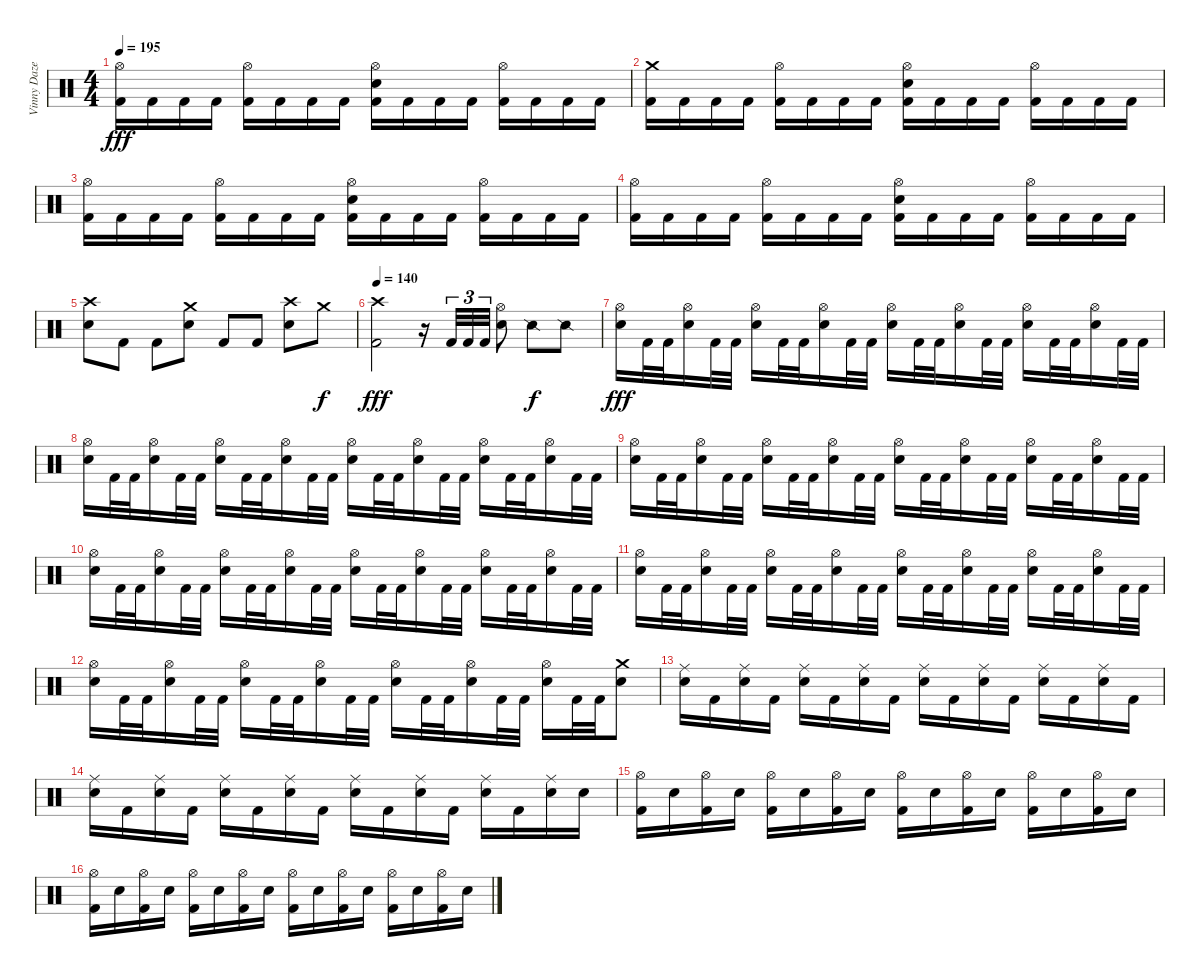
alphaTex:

\track ("Vinny Daze (R.I.P.)" "Vinny Daze") {instrument percussion}
\staff {score}
\articulation defaults
\ts (4 4)
\tempo 195
\clef neutral
\ks c
("Hi-Hat (open)" "Kick (hit) 2").16{dy fff} "Kick (hit) 2".16 "Kick (hit) 2".16 "Kick (hit) 2".16 ("Hi-Hat (open)" "Kick (hit) 2").16 "Kick (hit) 2".16 "Kick (hit) 2".16 "Kick (hit) 2".16 ("Hi-Hat (open)" "Electric Snare (hit)" "Kick (hit) 2").16 "Kick (hit) 2".16 "Kick (hit) 2".16 "Kick (hit) 2".16 ("Hi-Hat (open)" "Kick (hit) 2").16 "Kick (hit) 2".16 "Kick (hit) 2".16 "Kick (hit) 2".16 |
("Crash medium (hit)" "Kick (hit) 2").16 "Kick (hit) 2".16 "Kick (hit) 2".16 "Kick (hit) 2".16 ("Hi-Hat (open)" "Kick (hit) 2").16 "Kick (hit) 2".16 "Kick (hit) 2".16 "Kick (hit) 2".16 ("Hi-Hat (open)" "Electric Snare (hit)" "Kick (hit) 2").16 "Kick (hit) 2".16 "Kick (hit) 2".16 "Kick (hit) 2".16 ("Hi-Hat (open)" "Kick (hit) 2").16 "Kick (hit) 2".16 "Kick (hit) 2".16 "Kick (hit) 2".16 |
("Hi-Hat (open)" "Kick (hit) 2").16 "Kick (hit) 2".16 "Kick (hit) 2".16 "Kick (hit) 2".16 ("Hi-Hat (open)" "Kick (hit) 2").16 "Kick (hit) 2".16 "Kick (hit) 2".16 "Kick (hit) 2".16 ("Hi-Hat (open)" "Electric Snare (hit)" "Kick (hit) 2").16 "Kick (hit) 2".16 "Kick (hit) 2".16 "Kick (hit) 2".16 ("Hi-Hat (open)" "Kick (hit) 2").16 "Kick (hit) 2".16 "Kick (hit) 2".16 "Kick (hit) 2".16 |
("Hi-Hat (open)" "Kick (hit) 2").16 "Kick (hit) 2".16 "Kick (hit) 2".16 "Kick (hit) 2".16 ("Hi-Hat (open)" "Kick (hit) 2").16 "Kick (hit) 2".16 "Kick (hit) 2".16 "Kick (hit) 2".16 ("Hi-Hat (open)" "Electric Snare (hit)" "Kick (hit) 2").16 "Kick (hit) 2".16 "Kick (hit) 2".16 "Kick (hit) 2".16 ("Hi-Hat (open)" "Kick (hit) 2").16 "Kick (hit) 2".16 "Kick (hit) 2".16 "Kick (hit) 2".16 |
("Crash high (hit)" "Electric Snare (hit)").8 "Kick (hit) 2".8 "Kick (hit) 2".8 ("Crash medium (hit)" "Electric Snare (hit)").8 "Kick (hit) 2".8 "Kick (hit) 2".8 ("Crash high (hit)" "Electric Snare (hit)").8 "Crash medium (hit)".8{dy f} |
\tempo 140
("Crash high (hit)" "Kick (hit) 2").2{dy fff} r.16 "Kick (hit) 2".32{tu (3 2)} "Kick (hit) 2".32{tu (3 2)} "Kick (hit) 2".32{tu (3 2)} ("Hi-Hat (open)" "Electric Snare (hit)").8 "Snare (side stick) 2".8{dy f} "Snare (side stick) 2".8 |
("Hi-Hat (open)" "Electric Snare (hit)").16{dy fff} "Kick (hit) 2".32 "Kick (hit) 2".32 ("Hi-Hat (open)" "Electric Snare (hit)").16 "Kick (hit) 2".32 "Kick (hit) 2".32 ("Hi-Hat (open)" "Electric Snare (hit)").16 "Kick (hit) 2".32 "Kick (hit) 2".32 ("Hi-Hat (open)" "Electric Snare (hit)").16 "Kick (hit) 2".32 "Kick (hit) 2".32 ("Hi-Hat (open)" "Electric Snare (hit)").16 "Kick (hit) 2".32 "Kick (hit) 2".32 ("Hi-Hat (open)" "Electric Snare (hit)").16 "Kick (hit) 2".32 "Kick (hit) 2".32 ("Hi-Hat (open)" "Electric Snare (hit)").16 "Kick (hit) 2".32 "Kick (hit) 2".32 ("Hi-Hat (open)" "Electric Snare (hit)").16 "Kick (hit) 2".32 "Kick (hit) 2".32 |
("Hi-Hat (open)" "Electric Snare (hit)").16 "Kick (hit) 2".32 "Kick (hit) 2".32 ("Hi-Hat (open)" "Electric Snare (hit)").16 "Kick (hit) 2".32 "Kick (hit) 2".32 ("Hi-Hat (open)" "Electric Snare (hit)").16 "Kick (hit) 2".32 "Kick (hit) 2".32 ("Hi-Hat (open)" "Electric Snare (hit)").16 "Kick (hit) 2".32 "Kick (hit) 2".32 ("Hi-Hat (open)" "Electric Snare (hit)").16 "Kick (hit) 2".32 "Kick (hit) 2".32 ("Hi-Hat (open)" "Electric Snare (hit)").16 "Kick (hit) 2".32 "Kick (hit) 2".32 ("Hi-Hat (open)" "Electric Snare (hit)").16 "Kick (hit) 2".32 "Kick (hit) 2".32 ("Hi-Hat (open)" "Electric Snare (hit)").16 "Kick (hit) 2".32 "Kick (hit) 2".32 |
("Hi-Hat (open)" "Electric Snare (hit)").16 "Kick (hit) 2".32 "Kick (hit) 2".32 ("Hi-Hat (open)" "Electric Snare (hit)").16 "Kick (hit) 2".32 "Kick (hit) 2".32 ("Hi-Hat (open)" "Electric Snare (hit)").16 "Kick (hit) 2".32 "Kick (hit) 2".32 ("Hi-Hat (open)" "Electric Snare (hit)").16 "Kick (hit) 2".32 "Kick (hit) 2".32 ("Hi-Hat (open)" "Electric Snare (hit)").16 "Kick (hit) 2".32 "Kick (hit) 2".32 ("Hi-Hat (open)" "Electric Snare (hit)").16 "Kick (hit) 2".32 "Kick (hit) 2".32 ("Hi-Hat (open)" "Electric Snare (hit)").16 "Kick (hit) 2".32 "Kick (hit) 2".32 ("Hi-Hat (open)" "Electric Snare (hit)").16 "Kick (hit) 2".32 "Kick (hit) 2".32 |
("Hi-Hat (open)" "Electric Snare (hit)").16 "Kick (hit) 2".32 "Kick (hit) 2".32 ("Hi-Hat (open)" "Electric Snare (hit)").16 "Kick (hit) 2".32 "Kick (hit) 2".32 ("Hi-Hat (open)" "Electric Snare (hit)").16 "Kick (hit) 2".32 "Kick (hit) 2".32 ("Hi-Hat (open)" "Electric Snare (hit)").16 "Kick (hit) 2".32 "Kick (hit) 2".32 ("Hi-Hat (open)" "Electric Snare (hit)").16 "Kick (hit) 2".32 "Kick (hit) 2".32 ("Hi-Hat (open)" "Electric Snare (hit)").16 "Kick (hit) 2".32 "Kick (hit) 2".32 ("Hi-Hat (open)" "Electric Snare (hit)").16 "Kick (hit) 2".32 "Kick (hit) 2".32 ("Hi-Hat (open)" "Electric Snare (hit)").16 "Kick (hit) 2".32 "Kick (hit) 2".32 |
("Hi-Hat (open)" "Electric Snare (hit)").16 "Kick (hit) 2".32 "Kick (hit) 2".32 ("Hi-Hat (open)" "Electric Snare (hit)").16 "Kick (hit) 2".32 "Kick (hit) 2".32 ("Hi-Hat (open)" "Electric Snare (hit)").16 "Kick (hit) 2".32 "Kick (hit) 2".32 ("Hi-Hat (open)" "Electric Snare (hit)").16 "Kick (hit) 2".32 "Kick (hit) 2".32 ("Hi-Hat (open)" "Electric Snare (hit)").16 "Kick (hit) 2".32 "Kick (hit) 2".32 ("Hi-Hat (open)" "Electric Snare (hit)").16 "Kick (hit) 2".32 "Kick (hit) 2".32 ("Hi-Hat (open)" "Electric Snare (hit)").16 "Kick (hit) 2".32 "Kick (hit) 2".32 ("Hi-Hat (open)" "Electric Snare (hit)").16 "Kick (hit) 2".32 "Kick (hit) 2".32 |
("Hi-Hat (open)" "Electric Snare (hit)").16 "Kick (hit) 2".32 "Kick (hit) 2".32 ("Hi-Hat (open)" "Electric Snare (hit)").16 "Kick (hit) 2".32 "Kick (hit) 2".32 ("Hi-Hat (open)" "Electric Snare (hit)").16 "Kick (hit) 2".32 "Kick (hit) 2".32 ("Hi-Hat (open)" "Electric Snare (hit)").16 "Kick (hit) 2".32 "Kick (hit) 2".32 ("Hi-Hat (open)" "Electric Snare (hit)").16 "Kick (hit) 2".32 "Kick (hit) 2".32 ("Hi-Hat (open)" "Electric Snare (hit)").16 "Kick (hit) 2".32 "Kick (hit) 2".32 ("Hi-Hat (open)" "Electric Snare (hit)").16 "Kick (hit) 2".32 "Kick (hit) 2".32 ("Crash medium (hit)" "Electric Snare (hit)").8 |
("Ride (middle)" "Electric Snare (hit)").16 "Kick (hit) 2".16 ("Ride (middle)" "Electric Snare (hit)").16 "Kick (hit) 2".16 ("Ride (middle)" "Electric Snare (hit)").16 "Kick (hit) 2".16 ("Ride (middle)" "Electric Snare (hit)").16 "Kick (hit) 2".16 ("Ride (middle)" "Electric Snare (hit)").16 "Kick (hit) 2".16 ("Ride (middle)" "Electric Snare (hit)").16 "Kick (hit) 2".16 ("Ride (middle)" "Electric Snare (hit)").16 "Kick (hit) 2".16 ("Ride (middle)" "Electric Snare (hit)").16 "Kick (hit) 2".16 |
("Ride (middle)" "Electric Snare (hit)").16 "Kick (hit) 2".16 ("Ride (middle)" "Electric Snare (hit)").16 "Kick (hit) 2".16 ("Ride (middle)" "Electric Snare (hit)").16 "Kick (hit) 2".16 ("Ride (middle)" "Electric Snare (hit)").16 "Kick (hit) 2".16 ("Ride (middle)" "Electric Snare (hit)").16 "Kick (hit) 2".16 ("Ride (middle)" "Electric Snare (hit)").16 "Kick (hit) 2".16 ("Ride (middle)" "Electric Snare (hit)").16 "Kick (hit) 2".16 ("Ride (middle)" "Electric Snare (hit)").16 "Electric Snare (hit)".16 |
("Hi-Hat (open)" "Kick (hit) 2").16 "Electric Snare (hit)".16 ("Hi-Hat (open)" "Kick (hit) 2").16 "Electric Snare (hit)".16 ("Hi-Hat (open)" "Kick (hit) 2").16 "Electric Snare (hit)".16 ("Hi-Hat (open)" "Kick (hit) 2").16 "Electric Snare (hit)".16 ("Hi-Hat (open)" "Kick (hit) 2").16 "Electric Snare (hit)".16 ("Hi-Hat (open)" "Kick (hit) 2").16 "Electric Snare (hit)".16 ("Hi-Hat (open)" "Kick (hit) 2").16 "Electric Snare (hit)".16 ("Hi-Hat (open)" "Kick (hit) 2").16 "Electric Snare (hit)".16 |
("Hi-Hat (open)" "Kick (hit) 2").16 "Electric Snare (hit)".16 ("Hi-Hat (open)" "Kick (hit) 2").16 "Electric Snare (hit)".16 ("Hi-Hat (open)" "Kick (hit) 2").16 "Electric Snare (hit)".16 ("Hi-Hat (open)" "Kick (hit) 2").16 "Electric Snare (hit)".16 ("Hi-Hat (open)" "Kick (hit) 2").16 "Electric Snare (hit)".16 ("Hi-Hat (open)" "Kick (hit) 2").16 "Electric Snare (hit)".16 ("Hi-Hat (open)" "Kick (hit) 2").16 "Electric Snare (hit)".16 ("Hi-Hat (open)" "Kick (hit) 2").16 "Electric Snare (hit)".16
